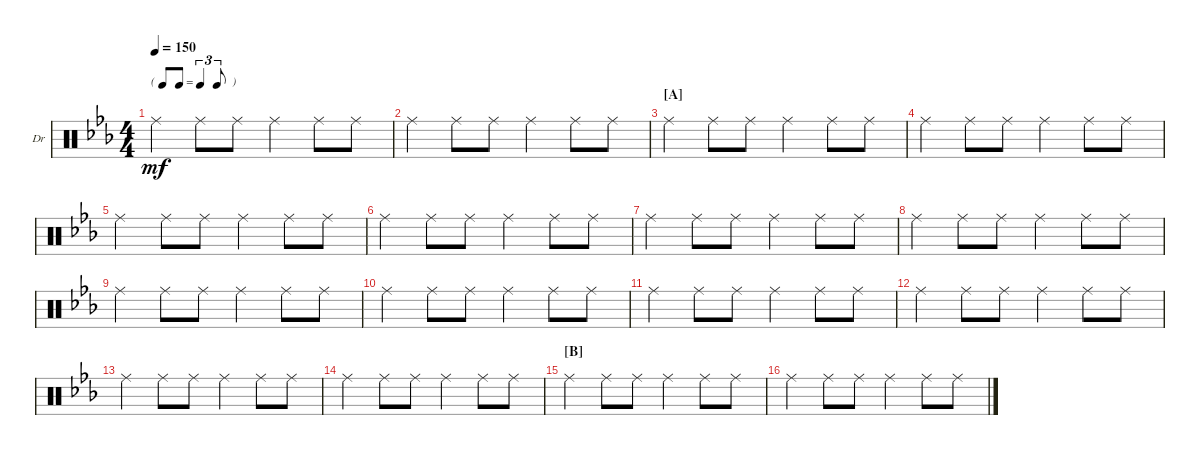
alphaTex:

\defaultSystemsLayout 4
\bracketExtendMode nobrackets
\firstSystemTrackNameOrientation horizontal
\otherSystemsTrackNameOrientation horizontal
\chordDiagramsInScore
\track ("Drums" "Dr") {instrument percussion}
\staff {score}
\articulation defaults
\ts (4 4)
\tf triplet8th
\tempo 150
\clef neutral
\ks cminor "Ride (middle)".4{dy mf} "Ride (middle)".8 "Ride (middle)".8 "Ride (middle)".4 "Ride (middle)".8 "Ride (middle)".8
|
"Ride (middle)".4 "Ride (middle)".8 "Ride (middle)".8 "Ride (middle)".4 "Ride (middle)".8 "Ride (middle)".8 |
\section ("A" "")
"Ride (middle)".4 "Ride (middle)".8 "Ride (middle)".8 "Ride (middle)".4 "Ride (middle)".8 "Ride (middle)".8 |
"Ride (middle)".4 "Ride (middle)".8 "Ride (middle)".8 "Ride (middle)".4 "Ride (middle)".8 "Ride (middle)".8 |
"Ride (middle)".4 "Ride (middle)".8 "Ride (middle)".8 "Ride (middle)".4 "Ride (middle)".8 "Ride (middle)".8 |
"Ride (middle)".4 "Ride (middle)".8 "Ride (middle)".8 "Ride (middle)".4 "Ride (middle)".8 "Ride (middle)".8 |
"Ride (middle)".4 "Ride (middle)".8 "Ride (middle)".8 "Ride (middle)".4 "Ride (middle)".8 "Ride (middle)".8 |
"Ride (middle)".4 "Ride (middle)".8 "Ride (middle)".8 "Ride (middle)".4 "Ride (middle)".8 "Ride (middle)".8 |
"Ride (middle)".4 "Ride (middle)".8 "Ride (middle)".8 "Ride (middle)".4 "Ride (middle)".8 "Ride (middle)".8 |
"Ride (middle)".4 "Ride (middle)".8 "Ride (middle)".8 "Ride (middle)".4 "Ride (middle)".8 "Ride (middle)".8 |
"Ride (middle)".4 "Ride (middle)".8 "Ride (middle)".8 "Ride (middle)".4 "Ride (middle)".8 "Ride (middle)".8 |
"Ride (middle)".4 "Ride (middle)".8 "Ride (middle)".8 "Ride (middle)".4 "Ride (middle)".8 "Ride (middle)".8 |
"Ride (middle)".4 "Ride (middle)".8 "Ride (middle)".8 "Ride (middle)".4 "Ride (middle)".8 "Ride (middle)".8 |
"Ride (middle)".4 "Ride (middle)".8 "Ride (middle)".8 "Ride (middle)".4 "Ride (middle)".8 "Ride (middle)".8 |
\section ("B" "")
"Ride (middle)".4 "Ride (middle)".8 "Ride (middle)".8 "Ride (middle)".4 "Ride (middle)".8 "Ride (middle)".8 |
"Ride (middle)".4 "Ride (middle)".8 "Ride (middle)".8 "Ride (middle)".4 "Ride (middle)".8 "Ride (middle)".8
